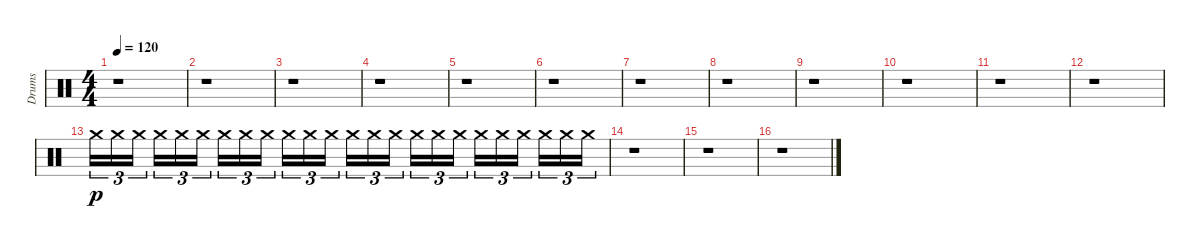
\track ("Drums" "Drums") {instrument percussion}
\staff {score}
\articulation defaults
\ts (4 4)
\tempo 120
\clef neutral
\ks c
r.1{dy p} |
r.1 |
r.1 |
r.1 |
r.1 |
r.1 |
r.1 |
r.1 |
r.1 |
r.1 |
r.1 |
r.1{volume 0} |
"Crash medium (hit)".16{tu (3 2) volume 16} "Crash medium (hit)".16{tu (3 2)} "Crash medium (hit)".16{tu (3 2)} "Crash medium (hit)".16{tu (3 2)} "Crash medium (hit)".16{tu (3 2)} "Crash medium (hit)".16{tu (3 2)} "Crash medium (hit)".16{tu (3 2)} "Crash medium (hit)".16{tu (3 2)} "Crash medium (hit)".16{tu (3 2)} "Crash medium (hit)".16{tu (3 2)} "Crash medium (hit)".16{tu (3 2)} "Crash medium (hit)".16{tu (3 2)} "Crash medium (hit)".16{tu (3 2)} "Crash medium (hit)".16{tu (3 2)} "Crash medium (hit)".16{tu (3 2)} "Crash medium (hit)".16{tu (3 2)} "Crash medium (hit)".16{tu (3 2)} "Crash medium (hit)".16{tu (3 2)} "Crash medium (hit)".16{tu (3 2)} "Crash medium (hit)".16{tu (3 2)} "Crash medium (hit)".16{tu (3 2)} "Crash medium (hit)".16{tu (3 2)} "Crash medium (hit)".16{tu (3 2)} "Crash medium (hit)".16{tu (3 2)} |
r.1 |
r.1 |
r.1{volume 0}
